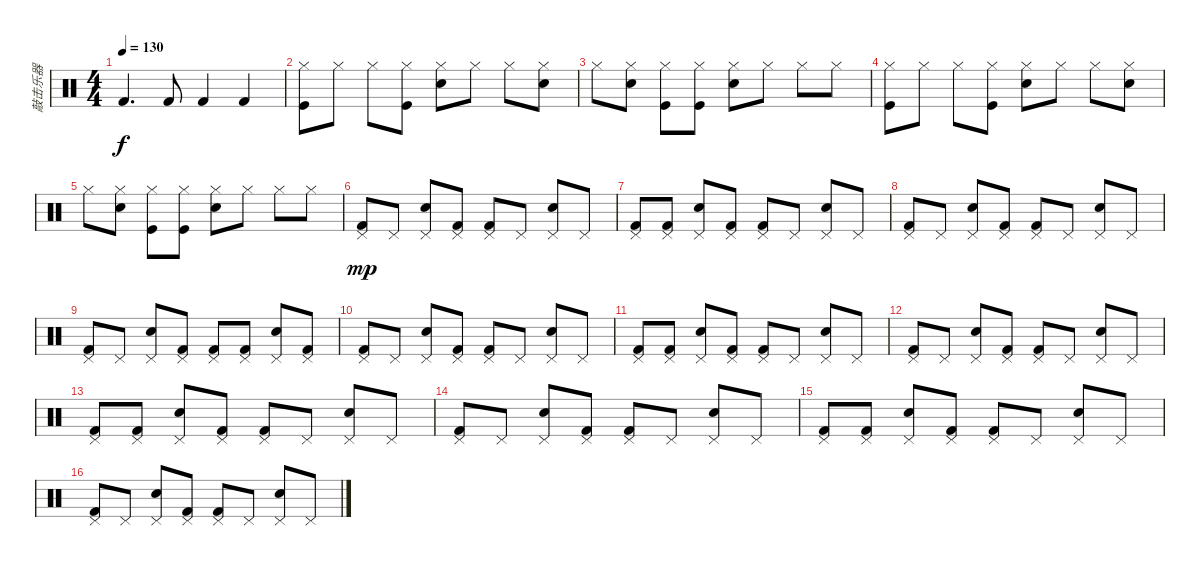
\track ("敲击乐器" "敲击乐器") {instrument percussion}
\staff {score}
\articulation defaults
\ts (4 4)
\tempo 130
\clef neutral
\ks c "Kick (hit) 2".4{d dy f} "Kick (hit) 2".8 "Kick (hit) 2".4 "Kick (hit) 2".4
|
("Hi-Hat (closed)" "Kick (hit)").8 "Hi-Hat (closed)".8 "Hi-Hat (closed)".8 ("Hi-Hat (closed)" "Kick (hit)").8 ("Hi-Hat (closed)" "Electric Snare (hit)").8 "Hi-Hat (closed)".8 "Hi-Hat (closed)".8 ("Hi-Hat (closed)" "Electric Snare (hit)").8 |
"Hi-Hat (closed)".8 ("Hi-Hat (closed)" "Electric Snare (hit)").8 ("Hi-Hat (closed)" "Kick (hit)").8 ("Hi-Hat (closed)" "Kick (hit)").8 ("Hi-Hat (closed)" "Electric Snare (hit)").8 "Hi-Hat (closed)".8 "Hi-Hat (closed)".8 "Hi-Hat (closed)".8 |
("Hi-Hat (closed)" "Kick (hit)").8 "Hi-Hat (closed)".8 "Hi-Hat (closed)".8 ("Hi-Hat (closed)" "Kick (hit)").8 ("Hi-Hat (closed)" "Electric Snare (hit)").8 "Hi-Hat (closed)".8 "Hi-Hat (closed)".8 ("Hi-Hat (closed)" "Electric Snare (hit)").8 |
"Hi-Hat (closed)".8 ("Hi-Hat (closed)" "Electric Snare (hit)").8 ("Hi-Hat (closed)" "Kick (hit)").8 ("Hi-Hat (closed)" "Kick (hit)").8 ("Hi-Hat (closed)" "Electric Snare (hit)").8 "Hi-Hat (closed)".8 "Hi-Hat (closed)".8 "Hi-Hat (closed)".8 |
("Pedal Hi-Hat (hit)" "Kick (hit) 2").8{dy mp} "Pedal Hi-Hat (hit)".8 ("Pedal Hi-Hat (hit)" "Electric Snare (hit)").8 ("Pedal Hi-Hat (hit)" "Kick (hit) 2").8 ("Pedal Hi-Hat (hit)" "Kick (hit) 2").8 "Pedal Hi-Hat (hit)".8 ("Pedal Hi-Hat (hit)" "Electric Snare (hit)").8 "Pedal Hi-Hat (hit)".8 |
("Pedal Hi-Hat (hit)" "Kick (hit) 2").8 ("Pedal Hi-Hat (hit)" "Kick (hit) 2").8 ("Pedal Hi-Hat (hit)" "Electric Snare (hit)").8 ("Pedal Hi-Hat (hit)" "Kick (hit) 2").8 ("Pedal Hi-Hat (hit)" "Kick (hit) 2").8 "Pedal Hi-Hat (hit)".8 ("Pedal Hi-Hat (hit)" "Electric Snare (hit)").8 "Pedal Hi-Hat (hit)".8 |
("Pedal Hi-Hat (hit)" "Kick (hit) 2").8 "Pedal Hi-Hat (hit)".8 ("Pedal Hi-Hat (hit)" "Electric Snare (hit)").8 ("Pedal Hi-Hat (hit)" "Kick (hit) 2").8 ("Pedal Hi-Hat (hit)" "Kick (hit) 2").8 "Pedal Hi-Hat (hit)".8 ("Pedal Hi-Hat (hit)" "Electric Snare (hit)").8 "Pedal Hi-Hat (hit)".8 |
("Pedal Hi-Hat (hit)" "Kick (hit) 2").8 "Pedal Hi-Hat (hit)".8 ("Pedal Hi-Hat (hit)" "Electric Snare (hit)").8 ("Pedal Hi-Hat (hit)" "Kick (hit) 2").8 ("Pedal Hi-Hat (hit)" "Kick (hit) 2").8 ("Pedal Hi-Hat (hit)" "Kick (hit) 2").8 ("Pedal Hi-Hat (hit)" "Electric Snare (hit)").8 ("Pedal Hi-Hat (hit)" "Kick (hit) 2").8 |
("Pedal Hi-Hat (hit)" "Kick (hit) 2").8 "Pedal Hi-Hat (hit)".8 ("Pedal Hi-Hat (hit)" "Electric Snare (hit)").8 ("Pedal Hi-Hat (hit)" "Kick (hit) 2").8 ("Pedal Hi-Hat (hit)" "Kick (hit) 2").8 "Pedal Hi-Hat (hit)".8 ("Pedal Hi-Hat (hit)" "Electric Snare (hit)").8 "Pedal Hi-Hat (hit)".8 |
("Pedal Hi-Hat (hit)" "Kick (hit) 2").8 ("Pedal Hi-Hat (hit)" "Kick (hit) 2").8 ("Pedal Hi-Hat (hit)" "Electric Snare (hit)").8 ("Pedal Hi-Hat (hit)" "Kick (hit) 2").8 ("Pedal Hi-Hat (hit)" "Kick (hit) 2").8 "Pedal Hi-Hat (hit)".8 ("Pedal Hi-Hat (hit)" "Electric Snare (hit)").8 "Pedal Hi-Hat (hit)".8 |
("Pedal Hi-Hat (hit)" "Kick (hit) 2").8 "Pedal Hi-Hat (hit)".8 ("Pedal Hi-Hat (hit)" "Electric Snare (hit)").8 ("Pedal Hi-Hat (hit)" "Kick (hit) 2").8 ("Pedal Hi-Hat (hit)" "Kick (hit) 2").8 "Pedal Hi-Hat (hit)".8 ("Pedal Hi-Hat (hit)" "Electric Snare (hit)").8 "Pedal Hi-Hat (hit)".8 |
("Pedal Hi-Hat (hit)" "Kick (hit) 2").8 ("Pedal Hi-Hat (hit)" "Kick (hit) 2").8 ("Pedal Hi-Hat (hit)" "Electric Snare (hit)").8 ("Pedal Hi-Hat (hit)" "Kick (hit) 2").8 ("Pedal Hi-Hat (hit)" "Kick (hit) 2").8 "Pedal Hi-Hat (hit)".8 ("Pedal Hi-Hat (hit)" "Electric Snare (hit)").8 "Pedal Hi-Hat (hit)".8 |
("Pedal Hi-Hat (hit)" "Kick (hit) 2").8 "Pedal Hi-Hat (hit)".8 ("Pedal Hi-Hat (hit)" "Electric Snare (hit)").8 ("Pedal Hi-Hat (hit)" "Kick (hit) 2").8 ("Pedal Hi-Hat (hit)" "Kick (hit) 2").8 "Pedal Hi-Hat (hit)".8 ("Pedal Hi-Hat (hit)" "Electric Snare (hit)").8 "Pedal Hi-Hat (hit)".8 |
("Pedal Hi-Hat (hit)" "Kick (hit) 2").8 ("Pedal Hi-Hat (hit)" "Kick (hit) 2").8 ("Pedal Hi-Hat (hit)" "Electric Snare (hit)").8 ("Pedal Hi-Hat (hit)" "Kick (hit) 2").8 ("Pedal Hi-Hat (hit)" "Kick (hit) 2").8 "Pedal Hi-Hat (hit)".8 ("Pedal Hi-Hat (hit)" "Electric Snare (hit)").8 "Pedal Hi-Hat (hit)".8 |
("Pedal Hi-Hat (hit)" "Kick (hit) 2").8 "Pedal Hi-Hat (hit)".8 ("Pedal Hi-Hat (hit)" "Electric Snare (hit)").8 ("Pedal Hi-Hat (hit)" "Kick (hit) 2").8 ("Pedal Hi-Hat (hit)" "Kick (hit) 2").8 "Pedal Hi-Hat (hit)".8 ("Pedal Hi-Hat (hit)" "Electric Snare (hit)").8 "Pedal Hi-Hat (hit)".8
